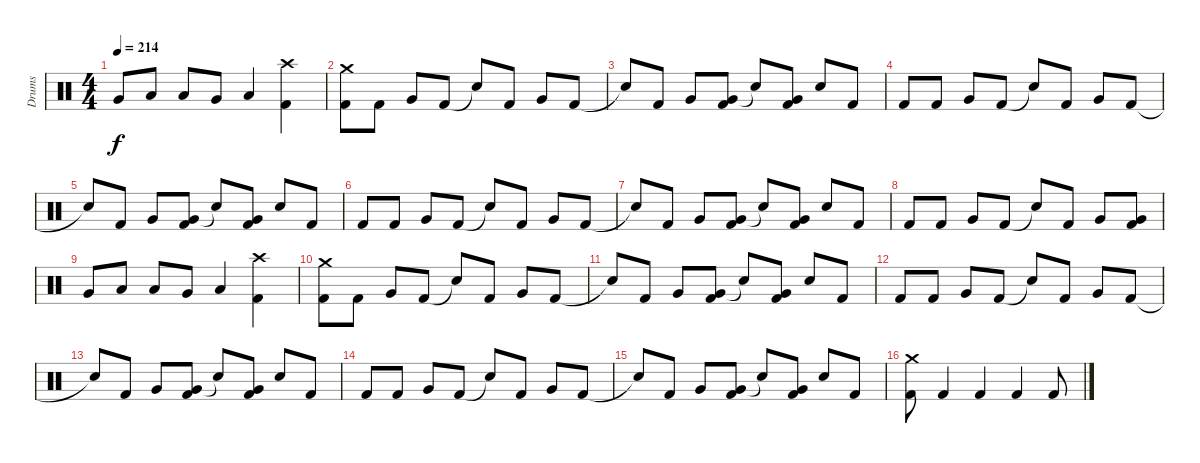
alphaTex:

\track ("Drums" "Drums") {instrument percussion}
\staff {score}
\articulation defaults
\ts (4 4)
\tempo 214
\clef neutral
\ks c "Very Low Tom (hit)".8{dy f} "Low Tom (hit)".8 "Low Tom (hit)".8 "Very Low Tom (hit)".8 "Low Tom (hit)".4
("Crash high (hit)" "Kick (hit) 2").4 |
("Crash medium (hit)" "Kick (hit) 2").8 "Kick (hit) 2".8 "Very Low Tom (hit)".8 "Kick (hit) 2".8 "Snare (hit)"{t}.8 "Kick (hit) 2".8 "Very Low Tom (hit)".8 "Kick (hit) 2".8 |
"Snare (hit)"{t}.8 "Kick (hit) 2".8 "Very Low Tom (hit)".8 ("Very Low Tom (hit)" "Kick (hit) 2").8 "Snare (hit)"{t}.8 ("Very Low Tom (hit)" "Kick (hit) 2").8 "Electric Snare (hit)".8 "Kick (hit) 2".8 |
"Kick (hit) 2".8 "Kick (hit) 2".8 "Very Low Tom (hit)".8 "Kick (hit) 2".8 "Snare (hit)"{t}.8 "Kick (hit) 2".8 "Very Low Tom (hit)".8 "Kick (hit) 2".8 |
"Snare (hit)"{t}.8 "Kick (hit) 2".8 "Very Low Tom (hit)".8 ("Very Low Tom (hit)" "Kick (hit) 2").8 "Snare (hit)"{t}.8 ("Very Low Tom (hit)" "Kick (hit) 2").8 "Electric Snare (hit)".8 "Kick (hit) 2".8 |
"Kick (hit) 2".8 "Kick (hit) 2".8 "Very Low Tom (hit)".8 "Kick (hit) 2".8 "Snare (hit)"{t}.8 "Kick (hit) 2".8 "Very Low Tom (hit)".8 "Kick (hit) 2".8 |
"Snare (hit)"{t}.8 "Kick (hit) 2".8 "Very Low Tom (hit)".8 ("Very Low Tom (hit)" "Kick (hit) 2").8 "Snare (hit)"{t}.8 ("Very Low Tom (hit)" "Kick (hit) 2").8 "Electric Snare (hit)".8 "Kick (hit) 2".8 |
"Kick (hit) 2".8 "Kick (hit) 2".8 "Very Low Tom (hit)".8 "Kick (hit) 2".8 "Snare (hit)"{t}.8 "Kick (hit) 2".8 "Very Low Tom (hit)".8 ("Very Low Tom (hit)" "Kick (hit) 2").8 |
"Very Low Tom (hit)".8 "Low Tom (hit)".8 "Low Tom (hit)".8 "Very Low Tom (hit)".8 "Low Tom (hit)".4 ("Crash high (hit)" "Kick (hit) 2").4 |
("Crash medium (hit)" "Kick (hit) 2").8 "Kick (hit) 2".8 "Very Low Tom (hit)".8 "Kick (hit) 2".8 "Snare (hit)"{t}.8 "Kick (hit) 2".8 "Very Low Tom (hit)".8 "Kick (hit) 2".8 |
"Snare (hit)"{t}.8 "Kick (hit) 2".8 "Very Low Tom (hit)".8 ("Very Low Tom (hit)" "Kick (hit) 2").8 "Snare (hit)"{t}.8 ("Very Low Tom (hit)" "Kick (hit) 2").8 "Electric Snare (hit)".8 "Kick (hit) 2".8 |
"Kick (hit) 2".8 "Kick (hit) 2".8 "Very Low Tom (hit)".8 "Kick (hit) 2".8 "Snare (hit)"{t}.8 "Kick (hit) 2".8 "Very Low Tom (hit)".8 "Kick (hit) 2".8 |
"Snare (hit)"{t}.8 "Kick (hit) 2".8 "Very Low Tom (hit)".8 ("Very Low Tom (hit)" "Kick (hit) 2").8 "Snare (hit)"{t}.8 ("Very Low Tom (hit)" "Kick (hit) 2").8 "Electric Snare (hit)".8 "Kick (hit) 2".8 |
"Kick (hit) 2".8 "Kick (hit) 2".8 "Very Low Tom (hit)".8 "Kick (hit) 2".8 "Snare (hit)"{t}.8 "Kick (hit) 2".8 "Very Low Tom (hit)".8 "Kick (hit) 2".8 |
"Snare (hit)"{t}.8 "Kick (hit) 2".8 "Very Low Tom (hit)".8 ("Very Low Tom (hit)" "Kick (hit) 2").8 "Snare (hit)"{t}.8 ("Very Low Tom (hit)" "Kick (hit) 2").8 "Electric Snare (hit)".8 "Kick (hit) 2".8 |
("Crash medium (hit)" "Kick (hit) 2").8 "Kick (hit) 2".4 "Kick (hit) 2".4 "Kick (hit) 2".4 "Kick (hit) 2".8
